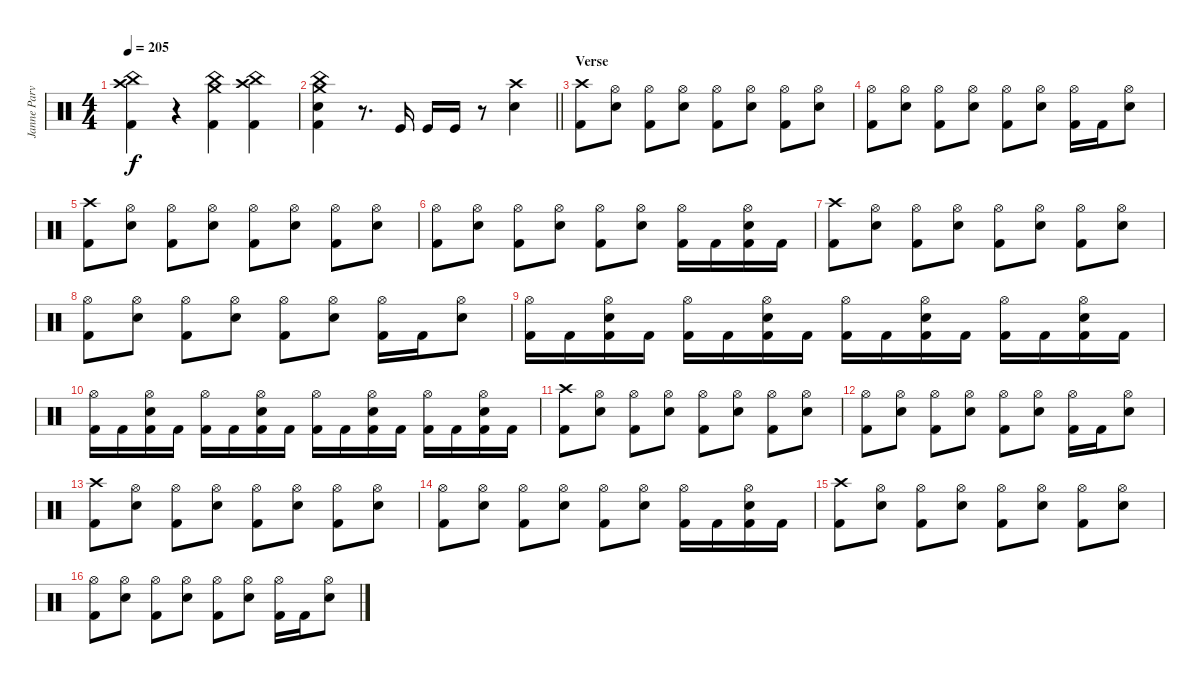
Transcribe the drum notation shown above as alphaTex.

\track ("Janne Parviainen" "Janne Parv") {instrument percussion}
\staff {score}
\articulation defaults
\ts (4 4)
\tempo 205
\clef neutral
\ks c
("Crash high (hit)" "China (hit)" "Kick (hit) 2").4{dy f} r.4 ("Crash medium (hit)" "China (hit)" "Kick (hit) 2").4 ("Crash high (hit)" "China (hit)" "Kick (hit) 2").4 |
\barLineRight lightlight
("Crash medium (hit)" "China (hit)" "Snare (hit) 2" "Kick (hit) 2").4 r.8{d} "Kick (hit)".16 "Kick (hit)".16 "Kick (hit)".16 r.8 ("Crash high (hit)" "Snare (hit) 2").4 |
\section ("" "Verse")
("Crash high (hit)" "Kick (hit) 2").8 ("Hi-Hat (open)" "Electric Snare (hit)").8 ("Hi-Hat (open)" "Kick (hit) 2").8 ("Hi-Hat (open)" "Electric Snare (hit)").8 ("Hi-Hat (open)" "Kick (hit) 2").8 ("Hi-Hat (open)" "Electric Snare (hit)").8 ("Hi-Hat (open)" "Kick (hit) 2").8 ("Hi-Hat (open)" "Electric Snare (hit)").8 |
("Hi-Hat (open)" "Kick (hit) 2").8 ("Hi-Hat (open)" "Electric Snare (hit)").8 ("Hi-Hat (open)" "Kick (hit) 2").8 ("Hi-Hat (open)" "Electric Snare (hit)").8 ("Hi-Hat (open)" "Kick (hit) 2").8 ("Hi-Hat (open)" "Electric Snare (hit)").8 ("Hi-Hat (open)" "Kick (hit) 2").16 "Kick (hit) 2".16 ("Hi-Hat (open)" "Electric Snare (hit)").8 |
("Crash high (hit)" "Kick (hit) 2").8 ("Hi-Hat (open)" "Electric Snare (hit)").8 ("Hi-Hat (open)" "Kick (hit) 2").8 ("Hi-Hat (open)" "Electric Snare (hit)").8 ("Hi-Hat (open)" "Kick (hit) 2").8 ("Hi-Hat (open)" "Electric Snare (hit)").8 ("Hi-Hat (open)" "Kick (hit) 2").8 ("Hi-Hat (open)" "Electric Snare (hit)").8 |
("Hi-Hat (open)" "Kick (hit) 2").8 ("Hi-Hat (open)" "Electric Snare (hit)").8 ("Hi-Hat (open)" "Kick (hit) 2").8 ("Hi-Hat (open)" "Electric Snare (hit)").8 ("Hi-Hat (open)" "Kick (hit) 2").8 ("Hi-Hat (open)" "Electric Snare (hit)").8 ("Hi-Hat (open)" "Kick (hit) 2").16 "Kick (hit) 2".16 ("Hi-Hat (open)" "Electric Snare (hit)" "Kick (hit) 2").16 "Kick (hit) 2".16 |
("Crash high (hit)" "Kick (hit) 2").8 ("Hi-Hat (open)" "Electric Snare (hit)").8 ("Hi-Hat (open)" "Kick (hit) 2").8 ("Hi-Hat (open)" "Electric Snare (hit)").8 ("Hi-Hat (open)" "Kick (hit) 2").8 ("Hi-Hat (open)" "Electric Snare (hit)").8 ("Hi-Hat (open)" "Kick (hit) 2").8 ("Hi-Hat (open)" "Electric Snare (hit)").8 |
("Hi-Hat (open)" "Kick (hit) 2").8 ("Hi-Hat (open)" "Electric Snare (hit)").8 ("Hi-Hat (open)" "Kick (hit) 2").8 ("Hi-Hat (open)" "Electric Snare (hit)").8 ("Hi-Hat (open)" "Kick (hit) 2").8 ("Hi-Hat (open)" "Electric Snare (hit)").8 ("Hi-Hat (open)" "Kick (hit) 2").16 "Kick (hit) 2".16 ("Hi-Hat (open)" "Electric Snare (hit)").8 |
("Hi-Hat (open)" "Kick (hit) 2").16 "Kick (hit) 2".16 ("Hi-Hat (open)" "Snare (hit) 2" "Kick (hit) 2").16 "Kick (hit) 2".16 ("Hi-Hat (open)" "Kick (hit) 2").16 "Kick (hit) 2".16 ("Hi-Hat (open)" "Snare (hit) 2" "Kick (hit) 2").16 "Kick (hit) 2".16 ("Hi-Hat (open)" "Kick (hit) 2").16 "Kick (hit) 2".16 ("Hi-Hat (open)" "Snare (hit) 2" "Kick (hit) 2").16 "Kick (hit) 2".16 ("Hi-Hat (open)" "Kick (hit) 2").16 "Kick (hit) 2".16 ("Hi-Hat (open)" "Snare (hit) 2" "Kick (hit) 2").16 "Kick (hit) 2".16 |
("Hi-Hat (open)" "Kick (hit) 2").16 "Kick (hit) 2".16 ("Hi-Hat (open)" "Snare (hit) 2" "Kick (hit) 2").16 "Kick (hit) 2".16 ("Hi-Hat (open)" "Kick (hit) 2").16 "Kick (hit) 2".16 ("Hi-Hat (open)" "Snare (hit) 2" "Kick (hit) 2").16 "Kick (hit) 2".16 ("Hi-Hat (open)" "Kick (hit) 2").16 "Kick (hit) 2".16 ("Hi-Hat (open)" "Snare (hit) 2" "Kick (hit) 2").16 "Kick (hit) 2".16 ("Hi-Hat (open)" "Kick (hit) 2").16 "Kick (hit) 2".16 ("Hi-Hat (open)" "Snare (hit) 2" "Kick (hit) 2").16 "Kick (hit) 2".16 |
("Crash high (hit)" "Kick (hit) 2").8 ("Hi-Hat (open)" "Electric Snare (hit)").8 ("Hi-Hat (open)" "Kick (hit) 2").8 ("Hi-Hat (open)" "Electric Snare (hit)").8 ("Hi-Hat (open)" "Kick (hit) 2").8 ("Hi-Hat (open)" "Electric Snare (hit)").8 ("Hi-Hat (open)" "Kick (hit) 2").8 ("Hi-Hat (open)" "Electric Snare (hit)").8 |
("Hi-Hat (open)" "Kick (hit) 2").8 ("Hi-Hat (open)" "Electric Snare (hit)").8 ("Hi-Hat (open)" "Kick (hit) 2").8 ("Hi-Hat (open)" "Electric Snare (hit)").8 ("Hi-Hat (open)" "Kick (hit) 2").8 ("Hi-Hat (open)" "Electric Snare (hit)").8 ("Hi-Hat (open)" "Kick (hit) 2").16 "Kick (hit) 2".16 ("Hi-Hat (open)" "Electric Snare (hit)").8 |
("Crash high (hit)" "Kick (hit) 2").8 ("Hi-Hat (open)" "Electric Snare (hit)").8 ("Hi-Hat (open)" "Kick (hit) 2").8 ("Hi-Hat (open)" "Electric Snare (hit)").8 ("Hi-Hat (open)" "Kick (hit) 2").8 ("Hi-Hat (open)" "Electric Snare (hit)").8 ("Hi-Hat (open)" "Kick (hit) 2").8 ("Hi-Hat (open)" "Electric Snare (hit)").8 |
("Hi-Hat (open)" "Kick (hit) 2").8 ("Hi-Hat (open)" "Electric Snare (hit)").8 ("Hi-Hat (open)" "Kick (hit) 2").8 ("Hi-Hat (open)" "Electric Snare (hit)").8 ("Hi-Hat (open)" "Kick (hit) 2").8 ("Hi-Hat (open)" "Electric Snare (hit)").8 ("Hi-Hat (open)" "Kick (hit) 2").16 "Kick (hit) 2".16 ("Hi-Hat (open)" "Electric Snare (hit)" "Kick (hit) 2").16 "Kick (hit) 2".16 |
("Crash high (hit)" "Kick (hit) 2").8 ("Hi-Hat (open)" "Electric Snare (hit)").8 ("Hi-Hat (open)" "Kick (hit) 2").8 ("Hi-Hat (open)" "Electric Snare (hit)").8 ("Hi-Hat (open)" "Kick (hit) 2").8 ("Hi-Hat (open)" "Electric Snare (hit)").8 ("Hi-Hat (open)" "Kick (hit) 2").8 ("Hi-Hat (open)" "Electric Snare (hit)").8 |
("Hi-Hat (open)" "Kick (hit) 2").8 ("Hi-Hat (open)" "Electric Snare (hit)").8 ("Hi-Hat (open)" "Kick (hit) 2").8 ("Hi-Hat (open)" "Electric Snare (hit)").8 ("Hi-Hat (open)" "Kick (hit) 2").8 ("Hi-Hat (open)" "Electric Snare (hit)").8 ("Hi-Hat (open)" "Kick (hit) 2").16 "Kick (hit) 2".16 ("Hi-Hat (open)" "Electric Snare (hit)").8
